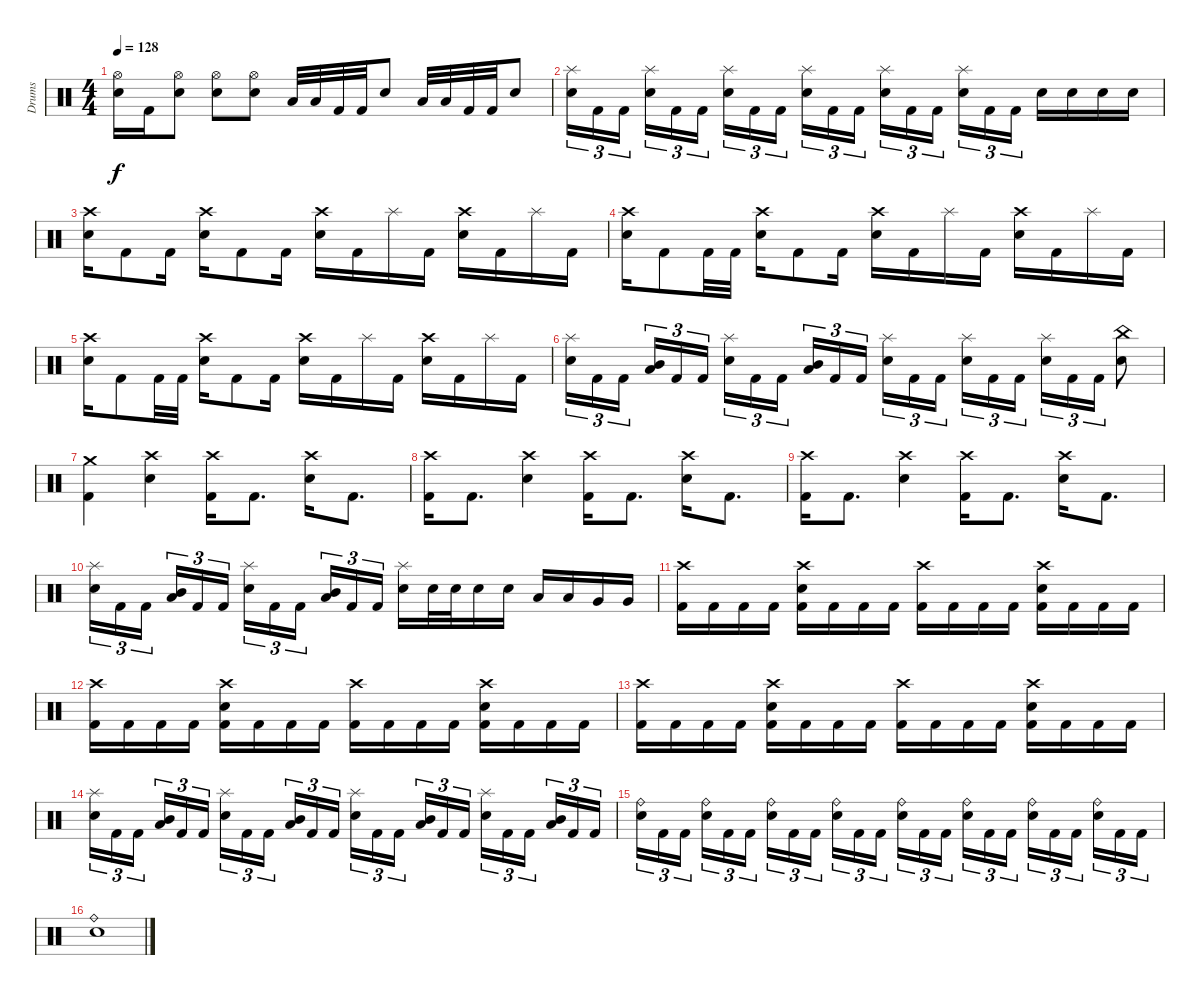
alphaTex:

\track ("Drums" "Drums") {instrument percussion}
\staff {score}
\articulation defaults
\ts (4 4)
\tempo 128
\clef neutral
\ks c
("Hi-Hat (open)" "Electric Snare (hit)").16{dy f} "Kick (hit) 2".16 ("Hi-Hat (open)" "Electric Snare (hit)").8 ("Hi-Hat (open)" "Electric Snare (hit)").8 ("Hi-Hat (open)" "Electric Snare (hit)").8 "Low Tom (hit)".32 "Low Tom (hit)".32 "Kick (hit) 2".32 "Kick (hit) 2".32 "Electric Snare (hit)".8 "Low Tom (hit)".32 "Low Tom (hit)".32 "Kick (hit) 2".32 "Kick (hit) 2".32 "Electric Snare (hit)".8 |
("Splash (hit)" "Electric Snare (hit)").16{tu (3 2)} "Kick (hit) 2".16{tu (3 2)} "Kick (hit) 2".16{tu (3 2) beam splitsecondary} ("Splash (hit)" "Electric Snare (hit)").16{tu (3 2)} "Kick (hit) 2".16{tu (3 2)} "Kick (hit) 2".16{tu (3 2)} ("Splash (hit)" "Electric Snare (hit)").16{tu (3 2)} "Kick (hit) 2".16{tu (3 2)} "Kick (hit) 2".16{tu (3 2) beam splitsecondary} ("Splash (hit)" "Electric Snare (hit)").16{tu (3 2)} "Kick (hit) 2".16{tu (3 2)} "Kick (hit) 2".16{tu (3 2)} ("Splash (hit)" "Electric Snare (hit)").16{tu (3 2)} "Kick (hit) 2".16{tu (3 2)} "Kick (hit) 2".16{tu (3 2) beam splitsecondary} ("Splash (hit)" "Electric Snare (hit)").16{tu (3 2)} "Kick (hit) 2".16{tu (3 2)} "Kick (hit) 2".16{tu (3 2)} "Electric Snare (hit)".16 "Electric Snare (hit)".16 "Electric Snare (hit)".16 "Electric Snare (hit)".16 |
("Crash high (hit)" "Electric Snare (hit)").16 "Kick (hit) 2".8 "Kick (hit) 2".16 ("Crash high (hit)" "Electric Snare (hit)").16 "Kick (hit) 2".8 "Kick (hit) 2".16 ("Crash high (hit)" "Electric Snare (hit)").16 "Kick (hit) 2".16 "Splash (hit)".16 "Kick (hit) 2".16 ("Crash high (hit)" "Electric Snare (hit)").16 "Kick (hit) 2".16 "Splash (hit)".16 "Kick (hit) 2".16 |
("Crash high (hit)" "Electric Snare (hit)").16 "Kick (hit) 2".8 "Kick (hit) 2".32 "Kick (hit) 2".32 ("Crash high (hit)" "Electric Snare (hit)").16 "Kick (hit) 2".8 "Kick (hit) 2".16 ("Crash high (hit)" "Electric Snare (hit)").16 "Kick (hit) 2".16 "Splash (hit)".16 "Kick (hit) 2".16 ("Crash high (hit)" "Electric Snare (hit)").16 "Kick (hit) 2".16 "Splash (hit)".16 "Kick (hit) 2".16 |
("Crash high (hit)" "Electric Snare (hit)").16 "Kick (hit) 2".8 "Kick (hit) 2".32 "Kick (hit) 2".32 ("Crash high (hit)" "Electric Snare (hit)").16 "Kick (hit) 2".8 "Kick (hit) 2".16 ("Crash high (hit)" "Electric Snare (hit)").16 "Kick (hit) 2".16 "Splash (hit)".16 "Kick (hit) 2".16 ("Crash high (hit)" "Electric Snare (hit)").16 "Kick (hit) 2".16 "Splash (hit)".16 "Kick (hit) 2".16 |
("Splash (hit)" "Electric Snare (hit)").16{tu (3 2)} "Kick (hit) 2".16{tu (3 2)} "Kick (hit) 2".16{tu (3 2) beam splitsecondary} ("Mid Tom (hit)" "Low Tom (hit)").16{tu (3 2)} "Kick (hit) 2".16{tu (3 2)} "Kick (hit) 2".16{tu (3 2)} ("Splash (hit)" "Electric Snare (hit)").16{tu (3 2)} "Kick (hit) 2".16{tu (3 2)} "Kick (hit) 2".16{tu (3 2) beam splitsecondary} ("Mid Tom (hit)" "Low Tom (hit)").16{tu (3 2)} "Kick (hit) 2".16{tu (3 2)} "Kick (hit) 2".16{tu (3 2)} ("Splash (hit)" "Electric Snare (hit)").16{tu (3 2)} "Kick (hit) 2".16{tu (3 2)} "Kick (hit) 2".16{tu (3 2) beam splitsecondary} ("Splash (hit)" "Electric Snare (hit)").16{tu (3 2)} "Kick (hit) 2".16{tu (3 2)} "Kick (hit) 2".16{tu (3 2)} ("Splash (hit)" "Electric Snare (hit)").16{tu (3 2)} "Kick (hit) 2".16{tu (3 2)} "Kick (hit) 2".16{tu (3 2)} ("China (hit)" "Electric Snare (hit)").8 |
("Crash medium (hit)" "Kick (hit) 2").4 ("Crash high (hit)" "Electric Snare (hit)").4 ("Crash high (hit)" "Kick (hit) 2").16 "Kick (hit) 2".8{d} ("Crash high (hit)" "Electric Snare (hit)").16 "Kick (hit) 2".8{d} |
("Crash high (hit)" "Kick (hit) 2").16 "Kick (hit) 2".8{d} ("Crash high (hit)" "Electric Snare (hit)").4 ("Crash high (hit)" "Kick (hit) 2").16 "Kick (hit) 2".8{d} ("Crash high (hit)" "Electric Snare (hit)").16 "Kick (hit) 2".8{d} |
("Crash high (hit)" "Kick (hit) 2").16 "Kick (hit) 2".8{d} ("Crash high (hit)" "Electric Snare (hit)").4 ("Crash high (hit)" "Kick (hit) 2").16 "Kick (hit) 2".8{d} ("Crash high (hit)" "Electric Snare (hit)").16 "Kick (hit) 2".8{d} |
("Splash (hit)" "Electric Snare (hit)").16{tu (3 2)} "Kick (hit) 2".16{tu (3 2)} "Kick (hit) 2".16{tu (3 2) beam splitsecondary} ("Mid Tom (hit)" "Low Tom (hit)").16{tu (3 2)} "Kick (hit) 2".16{tu (3 2)} "Kick (hit) 2".16{tu (3 2)} ("Splash (hit)" "Electric Snare (hit)").16{tu (3 2)} "Kick (hit) 2".16{tu (3 2)} "Kick (hit) 2".16{tu (3 2) beam splitsecondary} ("Mid Tom (hit)" "Low Tom (hit)").16{tu (3 2)} "Kick (hit) 2".16{tu (3 2)} "Kick (hit) 2".16{tu (3 2)} ("Splash (hit)" "Electric Snare (hit)").16 "Electric Snare (hit)".32 "Electric Snare (hit)".32 "Electric Snare (hit)".16 "Electric Snare (hit)".16 "Low Tom (hit)".16 "Low Tom (hit)".16 "Very Low Tom (hit)".16 "Very Low Tom (hit)".16 |
("Crash high (hit)" "Kick (hit) 2").16 "Kick (hit) 2".16 "Kick (hit) 2".16 "Kick (hit) 2".16 ("Crash high (hit)" "Electric Snare (hit)" "Kick (hit) 2").16 "Kick (hit) 2".16 "Kick (hit) 2".16 "Kick (hit) 2".16 ("Crash high (hit)" "Kick (hit) 2").16 "Kick (hit) 2".16 "Kick (hit) 2".16 "Kick (hit) 2".16 ("Crash high (hit)" "Electric Snare (hit)" "Kick (hit) 2").16 "Kick (hit) 2".16 "Kick (hit) 2".16 "Kick (hit) 2".16 |
("Crash high (hit)" "Kick (hit) 2").16 "Kick (hit) 2".16 "Kick (hit) 2".16 "Kick (hit) 2".16 ("Crash high (hit)" "Electric Snare (hit)" "Kick (hit) 2").16 "Kick (hit) 2".16 "Kick (hit) 2".16 "Kick (hit) 2".16 ("Crash high (hit)" "Kick (hit) 2").16 "Kick (hit) 2".16 "Kick (hit) 2".16 "Kick (hit) 2".16 ("Crash high (hit)" "Electric Snare (hit)" "Kick (hit) 2").16 "Kick (hit) 2".16 "Kick (hit) 2".16 "Kick (hit) 2".16 |
("Crash high (hit)" "Kick (hit) 2").16 "Kick (hit) 2".16 "Kick (hit) 2".16 "Kick (hit) 2".16 ("Crash high (hit)" "Electric Snare (hit)" "Kick (hit) 2").16 "Kick (hit) 2".16 "Kick (hit) 2".16 "Kick (hit) 2".16 ("Crash high (hit)" "Kick (hit) 2").16 "Kick (hit) 2".16 "Kick (hit) 2".16 "Kick (hit) 2".16 ("Crash high (hit)" "Electric Snare (hit)" "Kick (hit) 2").16 "Kick (hit) 2".16 "Kick (hit) 2".16 "Kick (hit) 2".16 |
("Splash (hit)" "Electric Snare (hit)").16{tu (3 2)} "Kick (hit) 2".16{tu (3 2)} "Kick (hit) 2".16{tu (3 2) beam splitsecondary} ("Mid Tom (hit)" "Low Tom (hit)").16{tu (3 2)} "Kick (hit) 2".16{tu (3 2)} "Kick (hit) 2".16{tu (3 2)} ("Splash (hit)" "Electric Snare (hit)").16{tu (3 2)} "Kick (hit) 2".16{tu (3 2)} "Kick (hit) 2".16{tu (3 2) beam splitsecondary} ("Mid Tom (hit)" "Low Tom (hit)").16{tu (3 2)} "Kick (hit) 2".16{tu (3 2)} "Kick (hit) 2".16{tu (3 2)} ("Splash (hit)" "Electric Snare (hit)").16{tu (3 2)} "Kick (hit) 2".16{tu (3 2)} "Kick (hit) 2".16{tu (3 2) beam splitsecondary} ("Mid Tom (hit)" "Low Tom (hit)").16{tu (3 2)} "Kick (hit) 2".16{tu (3 2)} "Kick (hit) 2".16{tu (3 2)} ("Splash (hit)" "Electric Snare (hit)").16{tu (3 2)} "Kick (hit) 2".16{tu (3 2)} "Kick (hit) 2".16{tu (3 2) beam splitsecondary} ("Mid Tom (hit)" "Low Tom (hit)").16{tu (3 2)} "Kick (hit) 2".16{tu (3 2)} "Kick (hit) 2".16{tu (3 2)} |
("Ride (bell)" "Electric Snare (hit)").16{tu (3 2)} "Kick (hit) 2".16{tu (3 2)} "Kick (hit) 2".16{tu (3 2) beam splitsecondary} ("Ride (bell)" "Electric Snare (hit)").16{tu (3 2)} "Kick (hit) 2".16{tu (3 2)} "Kick (hit) 2".16{tu (3 2)} ("Ride (bell)" "Electric Snare (hit)").16{tu (3 2)} "Kick (hit) 2".16{tu (3 2)} "Kick (hit) 2".16{tu (3 2) beam splitsecondary} ("Ride (bell)" "Electric Snare (hit)").16{tu (3 2)} "Kick (hit) 2".16{tu (3 2)} "Kick (hit) 2".16{tu (3 2)} ("Ride (bell)" "Electric Snare (hit)").16{tu (3 2)} "Kick (hit) 2".16{tu (3 2)} "Kick (hit) 2".16{tu (3 2) beam splitsecondary} ("Ride (bell)" "Electric Snare (hit)").16{tu (3 2)} "Kick (hit) 2".16{tu (3 2)} "Kick (hit) 2".16{tu (3 2)} ("Ride (bell)" "Electric Snare (hit)").16{tu (3 2)} "Kick (hit) 2".16{tu (3 2)} "Kick (hit) 2".16{tu (3 2) beam splitsecondary} ("Ride (bell)" "Electric Snare (hit)").16{tu (3 2)} "Kick (hit) 2".16{tu (3 2)} "Kick (hit) 2".16{tu (3 2)} |
("Ride (bell)" "Electric Snare (hit)").1
